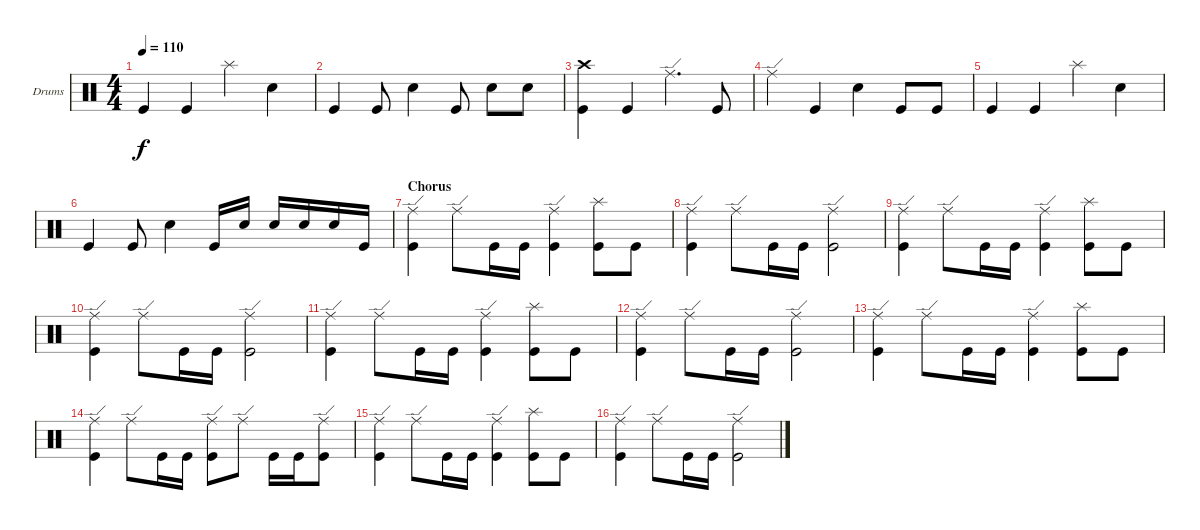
\bracketExtendMode groupsimilarinstruments
\firstSystemTrackNameOrientation horizontal
\otherSystemsTrackNameOrientation horizontal
\track ("Drumkit" "Drums") {instrument percussion}
\staff {score}
\articulation defaults
\ts (4 4)
\tempo 110
\clef neutral
\ks c "Kick (hit)".4{dy f} "Kick (hit)".4 "Splash (hit)".4 "Snare (hit) 2".4
|
"Kick (hit)".4 "Kick (hit)".8 "Snare (hit) 2".4 "Kick (hit)".8 "Snare (hit) 2".8 "Snare (hit) 2".8 |
("Crash high (hit)" "Kick (hit)").4 "Kick (hit)".4 "Ride (edge)".4{d} "Kick (hit)".8 |
"Ride (edge)".4 "Kick (hit)".4 "Snare (hit) 2".4 "Kick (hit)".8 "Kick (hit)".8 |
"Kick (hit)".4 "Kick (hit)".4 "Splash (hit)".4 "Snare (hit) 2".4 |
"Kick (hit)".4 "Kick (hit)".8 "Snare (hit) 2".4 "Kick (hit)".16 "Snare (hit) 2".16 "Snare (hit) 2".16 "Snare (hit) 2".16 "Snare (hit) 2".16 "Kick (hit)".16 |
\section ("" "Chorus")
("Ride (edge)" "Kick (hit)").4 "Ride (edge)".8 "Kick (hit)".16 "Kick (hit)".16 ("Ride (edge)" "Kick (hit)").4 ("Splash (hit)" "Kick (hit)").8 "Kick (hit)".8 |
("Ride (edge)" "Kick (hit)").4 "Ride (edge)".8 "Kick (hit)".16 "Kick (hit)".16 ("Ride (edge)" "Kick (hit)").2 |
("Ride (edge)" "Kick (hit)").4 "Ride (edge)".8 "Kick (hit)".16 "Kick (hit)".16 ("Ride (edge)" "Kick (hit)").4 ("Splash (hit)" "Kick (hit)").8 "Kick (hit)".8 |
("Ride (edge)" "Kick (hit)").4 "Ride (edge)".8 "Kick (hit)".16 "Kick (hit)".16 ("Ride (edge)" "Kick (hit)").2 |
("Ride (edge)" "Kick (hit)").4 "Ride (edge)".8 "Kick (hit)".16 "Kick (hit)".16 ("Ride (edge)" "Kick (hit)").4 ("Splash (hit)" "Kick (hit)").8 "Kick (hit)".8 |
("Ride (edge)" "Kick (hit)").4 "Ride (edge)".8 "Kick (hit)".16 "Kick (hit)".16 ("Ride (edge)" "Kick (hit)").2 |
("Ride (edge)" "Kick (hit)").4 "Ride (edge)".8 "Kick (hit)".16 "Kick (hit)".16 ("Ride (edge)" "Kick (hit)").4 ("Splash (hit)" "Kick (hit)").8 "Kick (hit)".8 |
("Ride (edge)" "Kick (hit)").4 "Ride (edge)".8 "Kick (hit)".16 "Kick (hit)".16 ("Ride (edge)" "Kick (hit)").8 "Ride (edge)".8 "Kick (hit)".16 "Kick (hit)".16 ("Ride (edge)" "Kick (hit)").8 |
("Ride (edge)" "Kick (hit)").4 "Ride (edge)".8 "Kick (hit)".16 "Kick (hit)".16 ("Ride (edge)" "Kick (hit)").4 ("Splash (hit)" "Kick (hit)").8 "Kick (hit)".8 |
("Ride (edge)" "Kick (hit)").4 "Ride (edge)".8 "Kick (hit)".16 "Kick (hit)".16 ("Ride (edge)" "Kick (hit)").2
